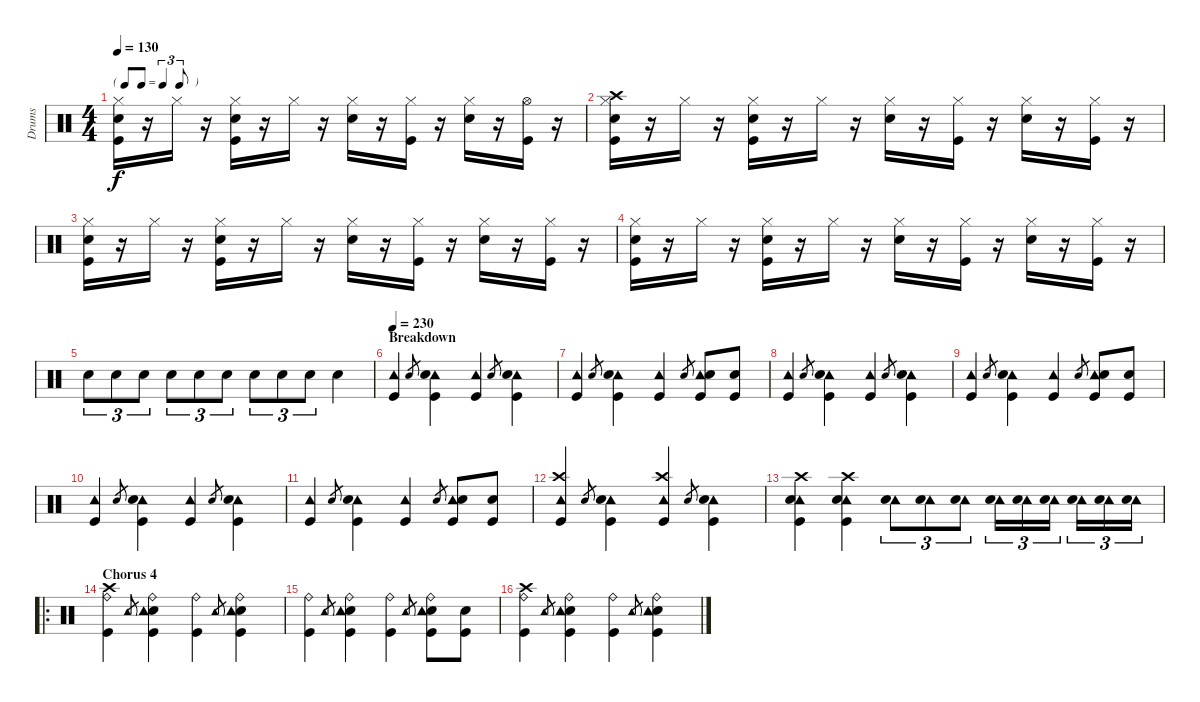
\track ("Drums" "Drums") {instrument percussion}
\staff {score}
\articulation defaults
\ts (4 4)
\tf triplet8th
\tempo 130
\clef neutral
\ks c
("Electric Snare (hit)" "Hi-Hat (closed)" "Kick (hit)").16{dy f} r.16 "Hi-Hat (closed)".16 r.16 ("Electric Snare (hit)" "Hi-Hat (closed)" "Kick (hit)").16 r.16 "Hi-Hat (closed)".16 r.16 ("Electric Snare (hit)" "Hi-Hat (closed)").16 r.16 ("Hi-Hat (closed)" "Kick (hit)").16 r.16 ("Electric Snare (hit)" "Hi-Hat (closed)").16 r.16 ("Hi-Hat (open)" "Kick (hit)").16 r.16 |
("Crash high (hit)" "Electric Snare (hit)" "Hi-Hat (closed)" "Kick (hit)").16 r.16 "Hi-Hat (closed)".16 r.16 ("Electric Snare (hit)" "Hi-Hat (closed)" "Kick (hit)").16 r.16 "Hi-Hat (closed)".16 r.16 ("Electric Snare (hit)" "Hi-Hat (closed)").16 r.16 ("Hi-Hat (closed)" "Kick (hit)").16 r.16 ("Electric Snare (hit)" "Hi-Hat (closed)").16 r.16 ("Hi-Hat (closed)" "Kick (hit)").16 r.16 |
("Electric Snare (hit)" "Hi-Hat (closed)" "Kick (hit)").16 r.16 "Hi-Hat (closed)".16 r.16 ("Electric Snare (hit)" "Hi-Hat (closed)" "Kick (hit)").16 r.16 "Hi-Hat (closed)".16 r.16 ("Electric Snare (hit)" "Hi-Hat (closed)").16 r.16 ("Hi-Hat (closed)" "Kick (hit)").16 r.16 ("Electric Snare (hit)" "Hi-Hat (closed)").16 r.16 ("Hi-Hat (closed)" "Kick (hit)").16 r.16 |
("Electric Snare (hit)" "Hi-Hat (closed)" "Kick (hit)").16 r.16 "Hi-Hat (closed)".16 r.16 ("Electric Snare (hit)" "Hi-Hat (closed)" "Kick (hit)").16 r.16 "Hi-Hat (closed)".16 r.16 ("Electric Snare (hit)" "Hi-Hat (closed)").16 r.16 ("Hi-Hat (closed)" "Kick (hit)").16 r.16 ("Electric Snare (hit)" "Hi-Hat (closed)").16 r.16 ("Hi-Hat (closed)" "Kick (hit)").16 r.16 |
"Electric Snare (hit)".8{tu (3 2)} "Electric Snare (hit)".8{tu (3 2)} "Electric Snare (hit)".8{tu (3 2)} "Electric Snare (hit)".8{tu (3 2)} "Electric Snare (hit)".8{tu (3 2)} "Electric Snare (hit)".8{tu (3 2)} "Electric Snare (hit)".8{tu (3 2)} "Electric Snare (hit)".8{tu (3 2)} "Electric Snare (hit)".8{tu (3 2)} "Electric Snare (hit)".4 |
\section ("" "Breakdown")
\tempo 230
("Tambourine (hit)" "Kick (hit)").4 "Electric Snare (hit)".8{gr} ("Tambourine (hit)" "Electric Snare (hit)" "Kick (hit)").4 ("Tambourine (hit)" "Kick (hit)").4 "Electric Snare (hit)".8{gr} ("Tambourine (hit)" "Electric Snare (hit)" "Kick (hit)").4 |
("Tambourine (hit)" "Kick (hit)").4 "Electric Snare (hit)".8{gr} ("Tambourine (hit)" "Electric Snare (hit)" "Kick (hit)").4 ("Tambourine (hit)" "Kick (hit)").4 "Electric Snare (hit)".8{gr} ("Tambourine (hit)" "Electric Snare (hit)" "Kick (hit)").8 ("Electric Snare (hit)" "Kick (hit)").8 |
("Tambourine (hit)" "Kick (hit)").4 "Electric Snare (hit)".8{gr} ("Tambourine (hit)" "Electric Snare (hit)" "Kick (hit)").4 ("Tambourine (hit)" "Kick (hit)").4 "Electric Snare (hit)".8{gr} ("Tambourine (hit)" "Electric Snare (hit)" "Kick (hit)").4 |
("Tambourine (hit)" "Kick (hit)").4 "Electric Snare (hit)".8{gr} ("Tambourine (hit)" "Electric Snare (hit)" "Kick (hit)").4 ("Tambourine (hit)" "Kick (hit)").4 "Electric Snare (hit)".8{gr} ("Tambourine (hit)" "Electric Snare (hit)" "Kick (hit)").8 ("Electric Snare (hit)" "Kick (hit)").8 |
("Tambourine (hit)" "Kick (hit)").4 "Electric Snare (hit)".8{gr} ("Tambourine (hit)" "Electric Snare (hit)" "Kick (hit)").4 ("Tambourine (hit)" "Kick (hit)").4 "Electric Snare (hit)".8{gr} ("Tambourine (hit)" "Electric Snare (hit)" "Kick (hit)").4 |
("Tambourine (hit)" "Kick (hit)").4 "Electric Snare (hit)".8{gr} ("Tambourine (hit)" "Electric Snare (hit)" "Kick (hit)").4 ("Tambourine (hit)" "Kick (hit)").4 "Electric Snare (hit)".8{gr} ("Tambourine (hit)" "Electric Snare (hit)" "Kick (hit)").8 ("Electric Snare (hit)" "Kick (hit)").8 |
("Crash high (hit)" "Tambourine (hit)" "Kick (hit)").4 "Electric Snare (hit)".8{gr} ("Tambourine (hit)" "Electric Snare (hit)" "Kick (hit)").4 ("Crash high (hit)" "Tambourine (hit)" "Kick (hit)").4 "Electric Snare (hit)".8{gr} ("Tambourine (hit)" "Electric Snare (hit)" "Kick (hit)").4 |
("Crash high (hit)" "Tambourine (hit)" "Electric Snare (hit)" "Kick (hit)").4 ("Crash high (hit)" "Tambourine (hit)" "Electric Snare (hit)" "Kick (hit)").4 ("Tambourine (hit)" "Electric Snare (hit)").8{tu (3 2)} ("Tambourine (hit)" "Electric Snare (hit)").8{tu (3 2)} ("Tambourine (hit)" "Electric Snare (hit)").8{tu (3 2)} ("Tambourine (hit)" "Electric Snare (hit)").16{tu (3 2)} ("Tambourine (hit)" "Electric Snare (hit)").16{tu (3 2)} ("Tambourine (hit)" "Electric Snare (hit)").16{tu (3 2)} ("Tambourine (hit)" "Electric Snare (hit)").16{tu (3 2)} ("Tambourine (hit)" "Electric Snare (hit)").16{tu (3 2)} ("Tambourine (hit)" "Electric Snare (hit)").16{tu (3 2)} |
\ro
\section ("" "Chorus 4")
("Crash high (hit)" "Ride (bell)" "Kick (hit)").4 "Tambourine (hit)".8{gr} ("Ride (bell)" "Electric Snare (hit)" "Kick (hit)" "Tambourine (hit)").4 ("Ride (bell)" "Kick (hit)").4 "Tambourine (hit)".8{gr} ("Ride (bell)" "Electric Snare (hit)" "Kick (hit)" "Tambourine (hit)").4 |
("Ride (bell)" "Kick (hit)").4 "Tambourine (hit)".8{gr} ("Ride (bell)" "Electric Snare (hit)" "Kick (hit)" "Tambourine (hit)").4 ("Ride (bell)" "Kick (hit)").4 "Tambourine (hit)".8{gr} ("Ride (bell)" "Electric Snare (hit)" "Kick (hit)" "Tambourine (hit)").8 ("Electric Snare (hit)" "Kick (hit)").8 |
("Crash high (hit)" "Ride (bell)" "Kick (hit)").4 "Tambourine (hit)".8{gr} ("Ride (bell)" "Electric Snare (hit)" "Kick (hit)" "Tambourine (hit)").4 ("Ride (bell)" "Kick (hit)").4 "Tambourine (hit)".8{gr} ("Ride (bell)" "Electric Snare (hit)" "Kick (hit)" "Tambourine (hit)").4
